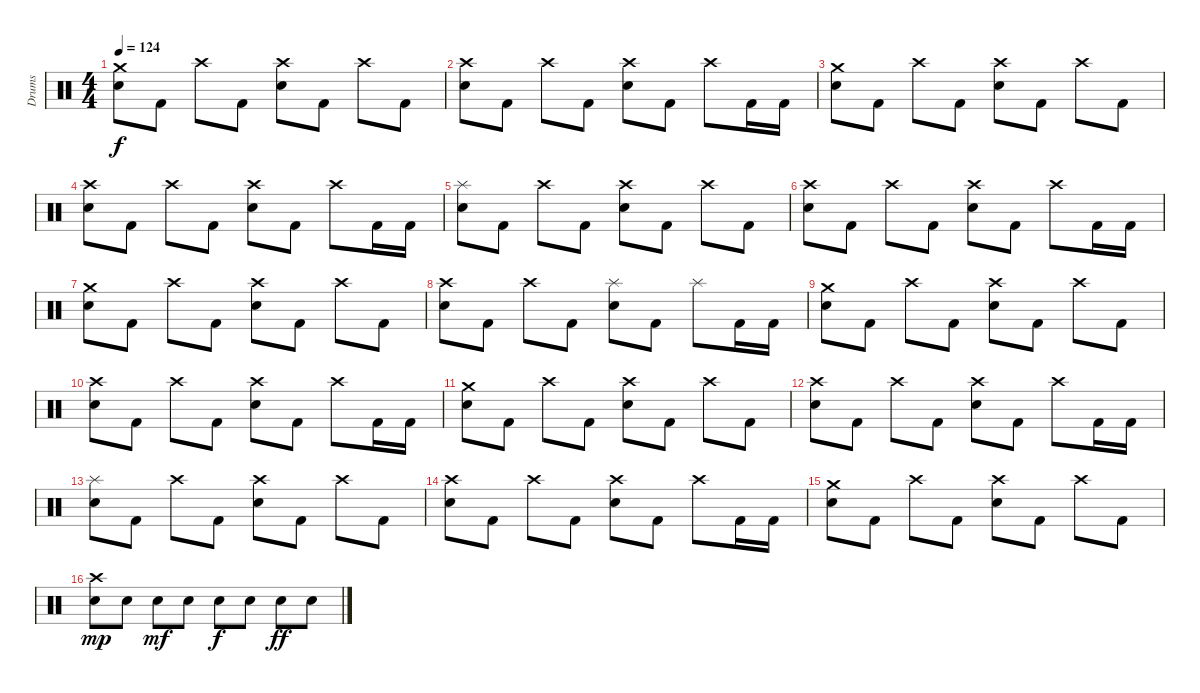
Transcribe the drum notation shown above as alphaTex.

\track ("Drums" "Drums") {instrument percussion}
\staff {score}
\articulation defaults
\ts (4 4)
\tempo 124
\clef neutral
\ks c
("Crash medium (hit)" "Electric Snare (hit)").8{dy f} "Kick (hit) 2".8 "Crash high (hit)".8 "Kick (hit) 2".8 ("Crash high (hit)" "Electric Snare (hit)").8 "Kick (hit) 2".8 "Crash high (hit)".8 "Kick (hit) 2".8 |
("Crash high (hit)" "Electric Snare (hit)").8 "Kick (hit) 2".8 "Crash high (hit)".8 "Kick (hit) 2".8 ("Crash high (hit)" "Electric Snare (hit)").8 "Kick (hit) 2".8 "Crash high (hit)".8 "Kick (hit) 2".16 "Kick (hit) 2".16 |
("Crash medium (hit)" "Electric Snare (hit)").8 "Kick (hit) 2".8 "Crash high (hit)".8 "Kick (hit) 2".8 ("Crash high (hit)" "Electric Snare (hit)").8 "Kick (hit) 2".8 "Crash high (hit)".8 "Kick (hit) 2".8 |
("Crash high (hit)" "Electric Snare (hit)").8 "Kick (hit) 2".8 "Crash high (hit)".8 "Kick (hit) 2".8 ("Crash high (hit)" "Electric Snare (hit)").8 "Kick (hit) 2".8 "Crash high (hit)".8 "Kick (hit) 2".16 "Kick (hit) 2".16 |
("Splash (hit)" "Electric Snare (hit)").8 "Kick (hit) 2".8 "Crash high (hit)".8 "Kick (hit) 2".8 ("Crash high (hit)" "Electric Snare (hit)").8 "Kick (hit) 2".8 "Crash high (hit)".8 "Kick (hit) 2".8 |
("Crash high (hit)" "Electric Snare (hit)").8 "Kick (hit) 2".8 "Crash high (hit)".8 "Kick (hit) 2".8 ("Crash high (hit)" "Electric Snare (hit)").8 "Kick (hit) 2".8 "Crash high (hit)".8 "Kick (hit) 2".16 "Kick (hit) 2".16 |
("Crash medium (hit)" "Electric Snare (hit)").8 "Kick (hit) 2".8 "Crash high (hit)".8 "Kick (hit) 2".8 ("Crash high (hit)" "Electric Snare (hit)").8 "Kick (hit) 2".8 "Crash high (hit)".8 "Kick (hit) 2".8 |
("Crash high (hit)" "Electric Snare (hit)").8 "Kick (hit) 2".8 "Crash high (hit)".8 "Kick (hit) 2".8 ("Splash (hit)" "Electric Snare (hit)").8 "Kick (hit) 2".8 "Splash (hit)".8 "Kick (hit) 2".16 "Kick (hit) 2".16 |
("Crash medium (hit)" "Electric Snare (hit)").8 "Kick (hit) 2".8 "Crash high (hit)".8 "Kick (hit) 2".8 ("Crash high (hit)" "Electric Snare (hit)").8 "Kick (hit) 2".8 "Crash high (hit)".8 "Kick (hit) 2".8 |
("Crash high (hit)" "Electric Snare (hit)").8 "Kick (hit) 2".8 "Crash high (hit)".8 "Kick (hit) 2".8 ("Crash high (hit)" "Electric Snare (hit)").8 "Kick (hit) 2".8 "Crash high (hit)".8 "Kick (hit) 2".16 "Kick (hit) 2".16 |
("Crash medium (hit)" "Electric Snare (hit)").8 "Kick (hit) 2".8 "Crash high (hit)".8 "Kick (hit) 2".8 ("Crash high (hit)" "Electric Snare (hit)").8 "Kick (hit) 2".8 "Crash high (hit)".8 "Kick (hit) 2".8 |
("Crash high (hit)" "Electric Snare (hit)").8 "Kick (hit) 2".8 "Crash high (hit)".8 "Kick (hit) 2".8 ("Crash high (hit)" "Electric Snare (hit)").8 "Kick (hit) 2".8 "Crash high (hit)".8 "Kick (hit) 2".16 "Kick (hit) 2".16 |
("Splash (hit)" "Electric Snare (hit)").8 "Kick (hit) 2".8 "Crash high (hit)".8 "Kick (hit) 2".8 ("Crash high (hit)" "Electric Snare (hit)").8 "Kick (hit) 2".8 "Crash high (hit)".8 "Kick (hit) 2".8 |
("Crash high (hit)" "Electric Snare (hit)").8 "Kick (hit) 2".8 "Crash high (hit)".8 "Kick (hit) 2".8 ("Crash high (hit)" "Electric Snare (hit)").8 "Kick (hit) 2".8 "Crash high (hit)".8 "Kick (hit) 2".16 "Kick (hit) 2".16 |
("Crash medium (hit)" "Electric Snare (hit)").8 "Kick (hit) 2".8 "Crash high (hit)".8 "Kick (hit) 2".8 ("Crash high (hit)" "Electric Snare (hit)").8 "Kick (hit) 2".8 "Crash high (hit)".8 "Kick (hit) 2".8 |
("Crash high (hit)" "Electric Snare (hit)").8{dy mp} "Electric Snare (hit)".8 "Electric Snare (hit)".8{dy mf} "Electric Snare (hit)".8 "Electric Snare (hit)".8{dy f} "Electric Snare (hit)".8 "Electric Snare (hit)".8{dy ff} "Electric Snare (hit)".8
